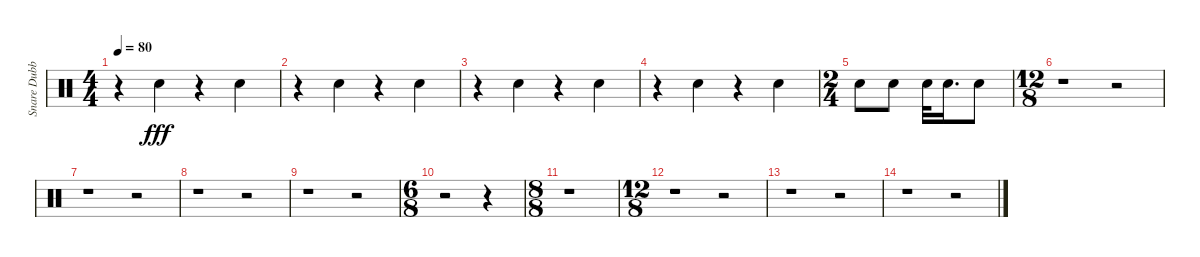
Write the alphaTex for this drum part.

\track ("Snare Dubbing (Ringo Starr)" "Snare Dubb") {instrument percussion}
\staff {score}
\articulation defaults
\ts (4 4)
\tempo 80
\clef neutral
\ks c
r.4{dy fff} "Electric Snare (hit)".4 r.4 "Electric Snare (hit)".4 |
r.4 "Electric Snare (hit)".4 r.4 "Electric Snare (hit)".4 |
r.4 "Electric Snare (hit)".4 r.4 "Electric Snare (hit)".4 |
r.4 "Electric Snare (hit)".4 r.4 "Electric Snare (hit)".4 |
\ts (2 4)
"Electric Snare (hit)".8 "Electric Snare (hit)".8 "Electric Snare (hit)".32 "Electric Snare (hit)".16{d} "Electric Snare (hit)".8 |
\ts (12 8)
r.1 r.2 |
r.1 r.2 |
r.1 r.2 |
r.1 r.2 |
\ts (6 8)
r.2 r.4 |
\ts (8 8)
r.1 |
\ts (12 8)
r.1 r.2 |
r.1 r.2 |
r.1 r.2
